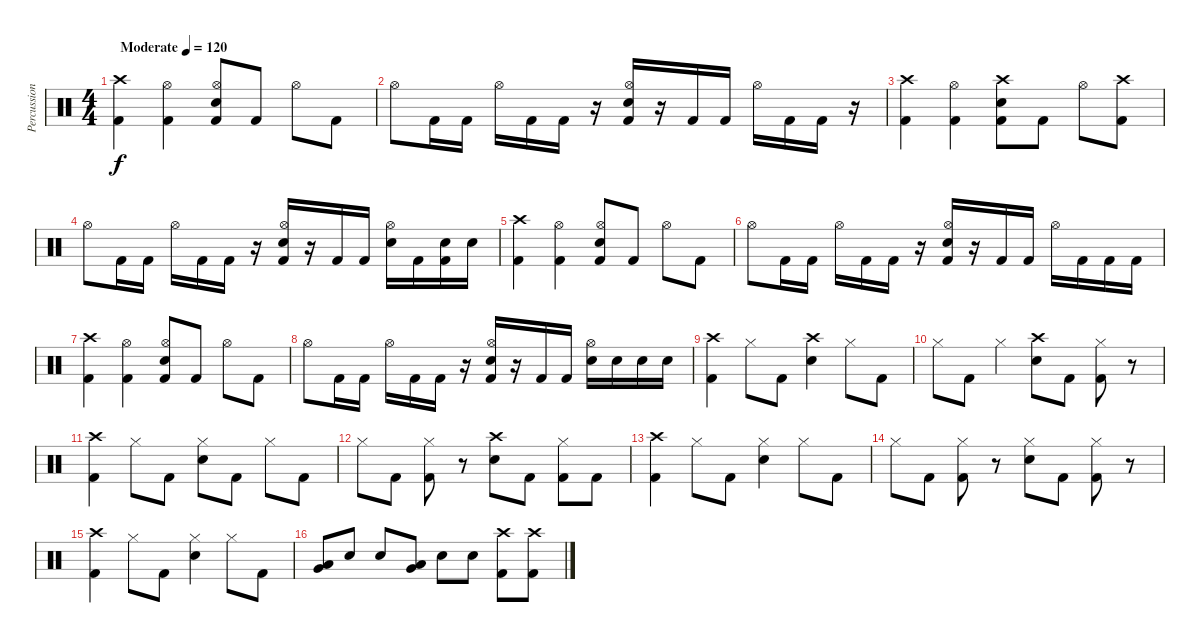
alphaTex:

\track ("Percussion" "Percussion") {instrument percussion}
\staff {score}
\articulation defaults
\ts (4 4)
\tempo (120 "Moderate")
\clef neutral
\ks c
("Crash high (hit)" "Kick (hit) 2").4{dy f} ("Hi-Hat (open)" "Kick (hit) 2").4 ("Hi-Hat (open)" "Electric Snare (hit)" "Kick (hit) 2").8 "Kick (hit) 2".8 "Hi-Hat (open)".8 "Kick (hit) 2".8 |
"Hi-Hat (open)".8 "Kick (hit) 2".16 "Kick (hit) 2".16 "Hi-Hat (open)".16 "Kick (hit) 2".16 "Kick (hit) 2".16 r.16 ("Hi-Hat (open)" "Electric Snare (hit)" "Kick (hit) 2").16 r.16 "Kick (hit) 2".16 "Kick (hit) 2".16 "Hi-Hat (open)".16 "Kick (hit) 2".16 "Kick (hit) 2".16 r.16 |
("Crash high (hit)" "Kick (hit) 2").4 ("Hi-Hat (open)" "Kick (hit) 2").4 ("Crash high (hit)" "Electric Snare (hit)" "Kick (hit) 2").8 "Kick (hit) 2".8 "Hi-Hat (open)".8 ("Crash high (hit)" "Kick (hit) 2").8 |
"Hi-Hat (open)".8 "Kick (hit) 2".16 "Kick (hit) 2".16 "Hi-Hat (open)".16 "Kick (hit) 2".16 "Kick (hit) 2".16 r.16 ("Hi-Hat (open)" "Electric Snare (hit)" "Kick (hit) 2").16 r.16 "Kick (hit) 2".16 "Kick (hit) 2".16 ("Hi-Hat (open)" "Electric Snare (hit)").16 "Kick (hit) 2".16 ("Electric Snare (hit)" "Kick (hit) 2").16 "Electric Snare (hit)".16 |
("Crash high (hit)" "Kick (hit) 2").4 ("Hi-Hat (open)" "Kick (hit) 2").4 ("Hi-Hat (open)" "Electric Snare (hit)" "Kick (hit) 2").8 "Kick (hit) 2".8 "Hi-Hat (open)".8 "Kick (hit) 2".8 |
"Hi-Hat (open)".8 "Kick (hit) 2".16 "Kick (hit) 2".16 "Hi-Hat (open)".16 "Kick (hit) 2".16 "Kick (hit) 2".16 r.16 ("Hi-Hat (open)" "Electric Snare (hit)" "Kick (hit) 2").16 r.16 "Kick (hit) 2".16 "Kick (hit) 2".16 "Hi-Hat (open)".16 "Kick (hit) 2".16 "Kick (hit) 2".16 "Kick (hit) 2".16 |
("Crash high (hit)" "Kick (hit) 2").4 ("Hi-Hat (open)" "Kick (hit) 2").4 ("Hi-Hat (open)" "Electric Snare (hit)" "Kick (hit) 2").8 "Kick (hit) 2".8 "Hi-Hat (open)".8 "Kick (hit) 2".8 |
"Hi-Hat (open)".8 "Kick (hit) 2".16 "Kick (hit) 2".16 "Hi-Hat (open)".16 "Kick (hit) 2".16 "Kick (hit) 2".16 r.16 ("Hi-Hat (open)" "Electric Snare (hit)" "Kick (hit) 2").16 r.16 "Kick (hit) 2".16 "Kick (hit) 2".16 ("Hi-Hat (open)" "Electric Snare (hit)").16 "Electric Snare (hit)".16 "Electric Snare (hit)".16 "Electric Snare (hit)".16 |
("Crash high (hit)" "Kick (hit) 2").4 "Hi-Hat (closed)".8 "Kick (hit) 2".8 ("Crash high (hit)" "Electric Snare (hit)").4 "Hi-Hat (closed)".8 "Kick (hit) 2".8 |
"Hi-Hat (closed)".8 "Kick (hit) 2".8 "Hi-Hat (closed)".4 ("Crash high (hit)" "Electric Snare (hit)").8 "Kick (hit) 2".8 ("Hi-Hat (closed)" "Kick (hit) 2").8 r.8 |
("Crash high (hit)" "Kick (hit) 2").4 "Hi-Hat (closed)".8 "Kick (hit) 2".8 ("Hi-Hat (closed)" "Electric Snare (hit)").8 "Kick (hit) 2".8 "Hi-Hat (closed)".8 "Kick (hit) 2".8 |
"Hi-Hat (closed)".8 "Kick (hit) 2".8 ("Hi-Hat (closed)" "Kick (hit) 2").8 r.8 ("Crash high (hit)" "Electric Snare (hit)").8 "Kick (hit) 2".8 ("Hi-Hat (closed)" "Kick (hit) 2").8 "Kick (hit) 2".8 |
("Crash high (hit)" "Kick (hit) 2").4 "Hi-Hat (closed)".8 "Kick (hit) 2".8 ("Hi-Hat (closed)" "Electric Snare (hit)").4 "Hi-Hat (closed)".8 "Kick (hit) 2".8 |
"Hi-Hat (closed)".8 "Kick (hit) 2".8 ("Hi-Hat (closed)" "Kick (hit) 2").8 r.8 ("Hi-Hat (closed)" "Electric Snare (hit)").8 "Kick (hit) 2".8 ("Hi-Hat (closed)" "Kick (hit) 2").8 r.8 |
("Crash high (hit)" "Kick (hit) 2").4 "Hi-Hat (closed)".8 "Kick (hit) 2".8 ("Hi-Hat (closed)" "Electric Snare (hit)").4 "Hi-Hat (closed)".8 "Kick (hit) 2".8 |
("Very Low Tom (hit)" "Low Floor Tom (hit)").8 "Electric Snare (hit)".8 "Electric Snare (hit)".8 ("Very Low Tom (hit)" "Low Floor Tom (hit)").8 "Electric Snare (hit)".8 "Electric Snare (hit)".8 ("Crash high (hit)" "Kick (hit) 2").8 ("Crash high (hit)" "Kick (hit) 2").8
